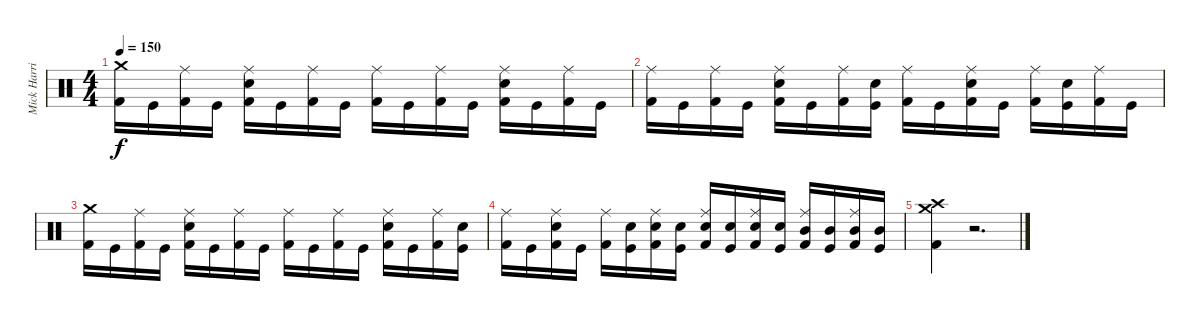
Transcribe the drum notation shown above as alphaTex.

\track ("Mick Harris (Drums)" "Mick Harri") {instrument percussion}
\staff {score}
\articulation defaults
\ts (4 4)
\tempo 150
\clef neutral
\ks c
("Kick (hit) 2" "Crash medium (hit)").16{dy f} "Kick (hit)".16 ("Kick (hit) 2" "Ride (middle)").16 "Kick (hit)".16 ("Kick (hit) 2" "Ride (middle)" "Electric Snare (hit)").16 "Kick (hit)".16 ("Kick (hit) 2" "Ride (middle)").16 "Kick (hit)".16 ("Kick (hit) 2" "Ride (middle)").16 "Kick (hit)".16 ("Kick (hit) 2" "Ride (middle)").16 "Kick (hit)".16 ("Kick (hit) 2" "Ride (middle)" "Electric Snare (hit)").16 "Kick (hit)".16 ("Kick (hit) 2" "Ride (middle)").16 "Kick (hit)".16 |
("Kick (hit) 2" "Ride (middle)").16 "Kick (hit)".16 ("Kick (hit) 2" "Ride (middle)").16 "Kick (hit)".16 ("Kick (hit) 2" "Ride (middle)" "Electric Snare (hit)").16 "Kick (hit)".16 ("Kick (hit) 2" "Ride (middle)").16 ("Kick (hit)" "Electric Snare (hit)").16 ("Kick (hit) 2" "Ride (middle)").16 "Kick (hit)".16 ("Kick (hit) 2" "Ride (middle)" "Electric Snare (hit)").16 "Kick (hit)".16 ("Kick (hit) 2" "Ride (middle)").16 ("Kick (hit)" "Electric Snare (hit)").16 ("Kick (hit) 2" "Ride (middle)").16 "Kick (hit)".16 |
("Kick (hit) 2" "Crash medium (hit)").16 "Kick (hit)".16 ("Kick (hit) 2" "Ride (middle)").16 "Kick (hit)".16 ("Kick (hit) 2" "Ride (middle)" "Electric Snare (hit)").16 "Kick (hit)".16 ("Kick (hit) 2" "Ride (middle)").16 "Kick (hit)".16 ("Kick (hit) 2" "Ride (middle)").16 "Kick (hit)".16 ("Kick (hit) 2" "Ride (middle)").16 "Kick (hit)".16 ("Kick (hit) 2" "Ride (middle)" "Electric Snare (hit)").16 "Kick (hit)".16 ("Kick (hit) 2" "Ride (middle)").16 ("Kick (hit)" "Electric Snare (hit)").16 |
("Kick (hit) 2" "Ride (middle)").16 "Kick (hit)".16 ("Kick (hit) 2" "Ride (middle)" "Electric Snare (hit)").16 "Kick (hit)".16 ("Kick (hit) 2" "Ride (middle)").16 ("Kick (hit)" "Electric Snare (hit)").16 ("Kick (hit) 2" "Ride (middle)" "Electric Snare (hit)").16 ("Kick (hit)" "Electric Snare (hit)").16 ("Kick (hit) 2" "Ride (middle)" "Electric Snare (hit)").16 ("Kick (hit)" "Electric Snare (hit)").16 ("Kick (hit) 2" "Ride (middle)" "Electric Snare (hit)").16 ("Kick (hit)" "Electric Snare (hit)").16 ("Kick (hit) 2" "Ride (middle)" "Mid Tom (hit)").16 ("Kick (hit)" "Mid Tom (hit)").16 ("Kick (hit) 2" "Ride (middle)" "Mid Tom (hit)").16 ("Kick (hit)" "Mid Tom (hit)").16 |
("Kick (hit) 2" "Crash medium (hit)" "Crash high (hit)").4 r.2{d}
